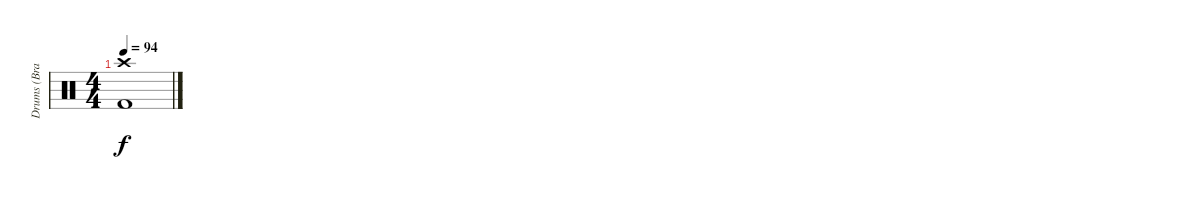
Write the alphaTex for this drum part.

\track ("Drums (Brandon Saller)" "Drums (Bra") {instrument percussion}
\staff {score}
\articulation defaults
\ts (4 4)
\tempo 94
\clef neutral
\ks c
("Crash high (hit)" "Kick (hit) 2").1{dy f}
